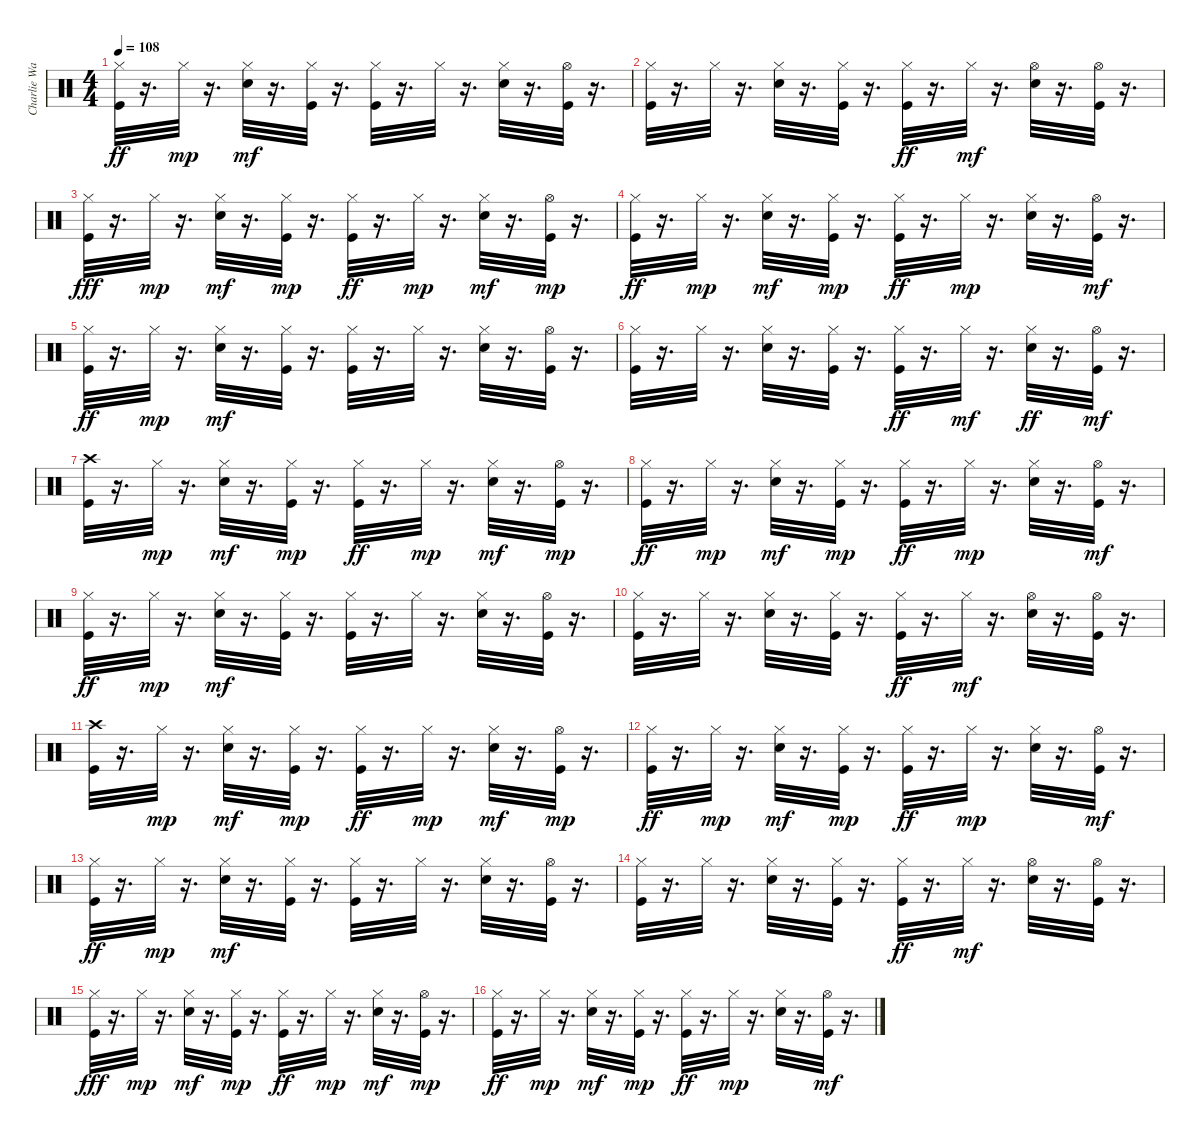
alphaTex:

\track ("Charlie Watts" "Charlie Wa") {instrument percussion}
\staff {score}
\articulation defaults
\ts (4 4)
\tempo 108
\clef neutral
\ks c
("Kick (hit)" "Hi-Hat (closed)").32{dy ff} r.16{d} "Hi-Hat (closed)".32{dy mp} r.16{d} ("Electric Snare (hit)" "Hi-Hat (closed)").32{dy mf} r.16{d} ("Kick (hit)" "Hi-Hat (closed)").32 r.16{d} ("Kick (hit)" "Hi-Hat (closed)").32 r.16{d} "Hi-Hat (closed)".32 r.16{d} ("Electric Snare (hit)" "Hi-Hat (closed)").32 r.16{d} ("Kick (hit)" "Hi-Hat (open)").32 r.16{d} |
("Kick (hit)" "Hi-Hat (closed)").32 r.16{d} "Hi-Hat (closed)".32 r.16{d} ("Electric Snare (hit)" "Hi-Hat (closed)").32 r.16{d} ("Kick (hit)" "Hi-Hat (closed)").32 r.16{d} ("Kick (hit)" "Hi-Hat (closed)").32{dy ff} r.16{d} "Hi-Hat (closed)".32{dy mf} r.16{d} ("Electric Snare (hit)" "Hi-Hat (open)").32 r.16{d} ("Kick (hit)" "Hi-Hat (open)").32 r.16{d} |
("Kick (hit)" "Hi-Hat (closed)").32{dy fff} r.16{d} "Hi-Hat (closed)".32{dy mp} r.16{d} ("Electric Snare (hit)" "Hi-Hat (closed)").32{dy mf} r.16{d} ("Kick (hit)" "Hi-Hat (closed)").32{dy mp} r.16{d} ("Kick (hit)" "Hi-Hat (closed)").32{dy ff} r.16{d} "Hi-Hat (closed)".32{dy mp} r.16{d} ("Electric Snare (hit)" "Hi-Hat (closed)").32{dy mf} r.16{d} ("Kick (hit)" "Hi-Hat (open)").32{dy mp} r.16{d} |
("Kick (hit)" "Hi-Hat (closed)").32{dy ff} r.16{d} "Hi-Hat (closed)".32{dy mp} r.16{d} ("Electric Snare (hit)" "Hi-Hat (closed)").32{dy mf} r.16{d} ("Kick (hit)" "Hi-Hat (closed)").32{dy mp} r.16{d} ("Kick (hit)" "Hi-Hat (closed)").32{dy ff} r.16{d} "Hi-Hat (closed)".32{dy mp} r.16{d} ("Electric Snare (hit)" "Hi-Hat (closed)").32 r.16{d} ("Kick (hit)" "Hi-Hat (open)").32{dy mf} r.16{d} |
("Kick (hit)" "Hi-Hat (closed)").32{dy ff} r.16{d} "Hi-Hat (closed)".32{dy mp} r.16{d} ("Electric Snare (hit)" "Hi-Hat (closed)").32{dy mf} r.16{d} ("Kick (hit)" "Hi-Hat (closed)").32 r.16{d} ("Kick (hit)" "Hi-Hat (closed)").32 r.16{d} "Hi-Hat (closed)".32 r.16{d} ("Electric Snare (hit)" "Hi-Hat (closed)").32 r.16{d} ("Kick (hit)" "Hi-Hat (open)").32 r.16{d} |
("Kick (hit)" "Hi-Hat (closed)").32 r.16{d} "Hi-Hat (closed)".32 r.16{d} ("Electric Snare (hit)" "Hi-Hat (closed)").32 r.16{d} ("Kick (hit)" "Hi-Hat (closed)").32 r.16{d} ("Kick (hit)" "Hi-Hat (closed)").32{dy ff} r.16{d} "Hi-Hat (closed)".32{dy mf} r.16{d} ("Electric Snare (hit)" "Hi-Hat (closed)").32{dy ff} r.16{d} ("Kick (hit)" "Hi-Hat (open)").32{dy mf} r.16{d} |
("Kick (hit)" "Crash high (hit)").32 r.16{d} "Hi-Hat (closed)".32{dy mp} r.16{d} ("Electric Snare (hit)" "Hi-Hat (closed)").32{dy mf} r.16{d} ("Kick (hit)" "Hi-Hat (closed)").32{dy mp} r.16{d} ("Kick (hit)" "Hi-Hat (closed)").32{dy ff} r.16{d} "Hi-Hat (closed)".32{dy mp} r.16{d} ("Electric Snare (hit)" "Hi-Hat (closed)").32{dy mf} r.16{d} ("Kick (hit)" "Hi-Hat (open)").32{dy mp} r.16{d} |
("Kick (hit)" "Hi-Hat (closed)").32{dy ff} r.16{d} "Hi-Hat (closed)".32{dy mp} r.16{d} ("Electric Snare (hit)" "Hi-Hat (closed)").32{dy mf} r.16{d} ("Kick (hit)" "Hi-Hat (closed)").32{dy mp} r.16{d} ("Kick (hit)" "Hi-Hat (closed)").32{dy ff} r.16{d} "Hi-Hat (closed)".32{dy mp} r.16{d} ("Electric Snare (hit)" "Hi-Hat (closed)").32 r.16{d} ("Kick (hit)" "Hi-Hat (open)").32{dy mf} r.16{d} |
("Kick (hit)" "Hi-Hat (closed)").32{dy ff} r.16{d} "Hi-Hat (closed)".32{dy mp} r.16{d} ("Electric Snare (hit)" "Hi-Hat (closed)").32{dy mf} r.16{d} ("Kick (hit)" "Hi-Hat (closed)").32 r.16{d} ("Kick (hit)" "Hi-Hat (closed)").32 r.16{d} "Hi-Hat (closed)".32 r.16{d} ("Electric Snare (hit)" "Hi-Hat (closed)").32 r.16{d} ("Kick (hit)" "Hi-Hat (open)").32 r.16{d} |
("Kick (hit)" "Hi-Hat (closed)").32 r.16{d} "Hi-Hat (closed)".32 r.16{d} ("Electric Snare (hit)" "Hi-Hat (closed)").32 r.16{d} ("Kick (hit)" "Hi-Hat (closed)").32 r.16{d} ("Kick (hit)" "Hi-Hat (closed)").32{dy ff} r.16{d} "Hi-Hat (closed)".32{dy mf} r.16{d} ("Electric Snare (hit)" "Hi-Hat (open)").32 r.16{d} ("Kick (hit)" "Hi-Hat (open)").32 r.16{d} |
("Kick (hit)" "Crash high (hit)").32 r.16{d} "Hi-Hat (closed)".32{dy mp} r.16{d} ("Electric Snare (hit)" "Hi-Hat (closed)").32{dy mf} r.16{d} ("Kick (hit)" "Hi-Hat (closed)").32{dy mp} r.16{d} ("Kick (hit)" "Hi-Hat (closed)").32{dy ff} r.16{d} "Hi-Hat (closed)".32{dy mp} r.16{d} ("Electric Snare (hit)" "Hi-Hat (closed)").32{dy mf} r.16{d} ("Kick (hit)" "Hi-Hat (open)").32{dy mp} r.16{d} |
("Kick (hit)" "Hi-Hat (closed)").32{dy ff} r.16{d} "Hi-Hat (closed)".32{dy mp} r.16{d} ("Electric Snare (hit)" "Hi-Hat (closed)").32{dy mf} r.16{d} ("Kick (hit)" "Hi-Hat (closed)").32{dy mp} r.16{d} ("Kick (hit)" "Hi-Hat (closed)").32{dy ff} r.16{d} "Hi-Hat (closed)".32{dy mp} r.16{d} ("Electric Snare (hit)" "Hi-Hat (closed)").32 r.16{d} ("Kick (hit)" "Hi-Hat (open)").32{dy mf} r.16{d} |
("Kick (hit)" "Hi-Hat (closed)").32{dy ff} r.16{d} "Hi-Hat (closed)".32{dy mp} r.16{d} ("Electric Snare (hit)" "Hi-Hat (closed)").32{dy mf} r.16{d} ("Kick (hit)" "Hi-Hat (closed)").32 r.16{d} ("Kick (hit)" "Hi-Hat (closed)").32 r.16{d} "Hi-Hat (closed)".32 r.16{d} ("Electric Snare (hit)" "Hi-Hat (closed)").32 r.16{d} ("Kick (hit)" "Hi-Hat (open)").32 r.16{d} |
("Kick (hit)" "Hi-Hat (closed)").32 r.16{d} "Hi-Hat (closed)".32 r.16{d} ("Electric Snare (hit)" "Hi-Hat (closed)").32 r.16{d} ("Kick (hit)" "Hi-Hat (closed)").32 r.16{d} ("Kick (hit)" "Hi-Hat (closed)").32{dy ff} r.16{d} "Hi-Hat (closed)".32{dy mf} r.16{d} ("Electric Snare (hit)" "Hi-Hat (open)").32 r.16{d} ("Kick (hit)" "Hi-Hat (open)").32 r.16{d} |
("Kick (hit)" "Hi-Hat (closed)").32{dy fff} r.16{d} "Hi-Hat (closed)".32{dy mp} r.16{d} ("Electric Snare (hit)" "Hi-Hat (closed)").32{dy mf} r.16{d} ("Kick (hit)" "Hi-Hat (closed)").32{dy mp} r.16{d} ("Kick (hit)" "Hi-Hat (closed)").32{dy ff} r.16{d} "Hi-Hat (closed)".32{dy mp} r.16{d} ("Electric Snare (hit)" "Hi-Hat (closed)").32{dy mf} r.16{d} ("Kick (hit)" "Hi-Hat (open)").32{dy mp} r.16{d} |
("Kick (hit)" "Hi-Hat (closed)").32{dy ff} r.16{d} "Hi-Hat (closed)".32{dy mp} r.16{d} ("Electric Snare (hit)" "Hi-Hat (closed)").32{dy mf} r.16{d} ("Kick (hit)" "Hi-Hat (closed)").32{dy mp} r.16{d} ("Kick (hit)" "Hi-Hat (closed)").32{dy ff} r.16{d} "Hi-Hat (closed)".32{dy mp} r.16{d} ("Electric Snare (hit)" "Hi-Hat (closed)").32 r.16{d} ("Kick (hit)" "Hi-Hat (open)").32{dy mf} r.16{d}
